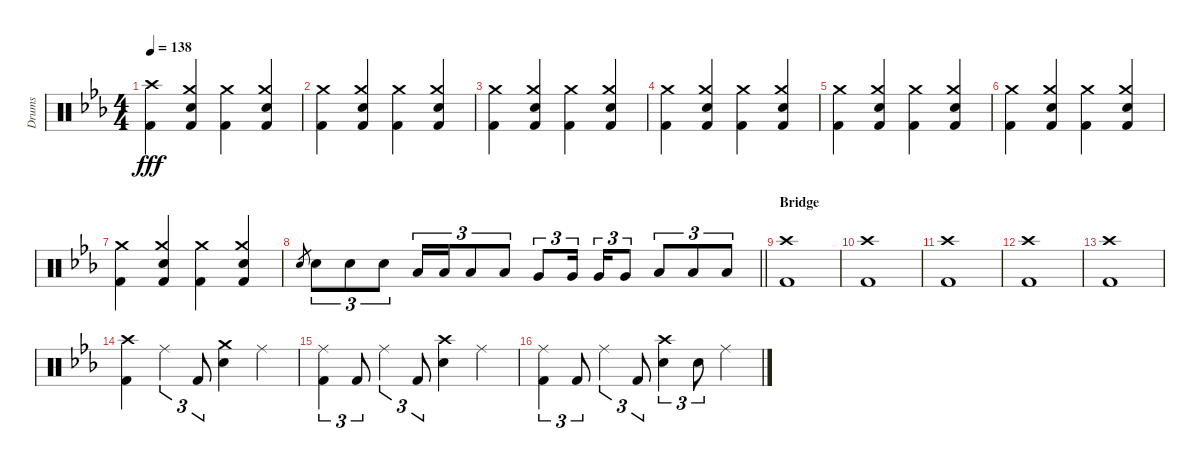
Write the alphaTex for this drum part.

\track ("Drums" "Drums") {instrument percussion}
\staff {score}
\articulation defaults
\ts (4 4)
\tempo 138
\clef neutral
\ks eb
("Crash high (hit)" "Kick (hit) 2").4{dy fff} ("Crash medium (hit)" "Snare (hit) 2" "Kick (hit) 2").4 ("Crash medium (hit)" "Kick (hit) 2").4 ("Crash medium (hit)" "Snare (hit) 2" "Kick (hit) 2").4 |
("Crash medium (hit)" "Kick (hit) 2").4 ("Crash medium (hit)" "Snare (hit) 2" "Kick (hit) 2").4 ("Crash medium (hit)" "Kick (hit) 2").4 ("Crash medium (hit)" "Snare (hit) 2" "Kick (hit) 2").4 |
("Crash medium (hit)" "Kick (hit) 2").4 ("Crash medium (hit)" "Snare (hit) 2" "Kick (hit) 2").4 ("Crash medium (hit)" "Kick (hit) 2").4 ("Crash medium (hit)" "Snare (hit) 2" "Kick (hit) 2").4 |
("Crash medium (hit)" "Kick (hit) 2").4 ("Crash medium (hit)" "Snare (hit) 2" "Kick (hit) 2").4 ("Crash medium (hit)" "Kick (hit) 2").4 ("Crash medium (hit)" "Snare (hit) 2" "Kick (hit) 2").4 |
("Crash medium (hit)" "Kick (hit) 2").4 ("Crash medium (hit)" "Snare (hit) 2" "Kick (hit) 2").4 ("Crash medium (hit)" "Kick (hit) 2").4 ("Crash medium (hit)" "Snare (hit) 2" "Kick (hit) 2").4 |
("Crash medium (hit)" "Kick (hit) 2").4 ("Crash medium (hit)" "Snare (hit) 2" "Kick (hit) 2").4 ("Crash medium (hit)" "Kick (hit) 2").4 ("Crash medium (hit)" "Snare (hit) 2" "Kick (hit) 2").4 |
("Crash medium (hit)" "Kick (hit) 2").4 ("Crash medium (hit)" "Snare (hit) 2" "Kick (hit) 2").4 ("Crash medium (hit)" "Kick (hit) 2").4 ("Crash medium (hit)" "Snare (hit) 2" "Kick (hit) 2").4 |
\barLineRight lightlight "Snare (hit) 2".8{gr} "Snare (hit) 2".8{tu (3 2)} "Snare (hit) 2".8{tu (3 2)} "Snare (hit) 2".8{tu (3 2)} "Low Tom (hit)".16{tu (3 2)} "Low Tom (hit)".16{tu (3 2)} "Low Tom (hit)".8{tu (3 2)} "Low Tom (hit)".8{tu (3 2)} "Very Low Tom (hit)".8{tu (3 2)} "Very Low Tom (hit)".16{tu (3 2)} "Very Low Tom (hit)".16{tu (3 2)} "Very Low Tom (hit)".8{tu (3 2)} "Low Floor Tom (hit)".8{tu (3 2)} "Low Floor Tom (hit)".8{tu (3 2)} "Low Floor Tom (hit)".8{tu (3 2)}
|
\section ("" "Bridge")
("Crash high (hit)" "Kick (hit) 2").1 |
("Crash high (hit)" "Kick (hit) 2").1 |
("Crash high (hit)" "Kick (hit) 2").1 |
("Crash high (hit)" "Kick (hit) 2").1 |
("Crash high (hit)" "Kick (hit) 2").1 |
("Crash high (hit)" "Kick (hit) 2").4 "Ride (middle)".4{tu (3 2)} "Kick (hit) 2".8{tu (3 2)} ("Crash medium (hit)" "Snare (hit) 2").4 "Ride (middle)".4 |
("Ride (middle)" "Kick (hit) 2").4{tu (3 2)} "Kick (hit) 2".8{tu (3 2)} "Ride (middle)".4{tu (3 2)} "Kick (hit) 2".8{tu (3 2)} ("Crash high (hit)" "Snare (hit) 2").4 "Ride (middle)".4 |
("Ride (middle)" "Kick (hit) 2").4{tu (3 2)} "Kick (hit) 2".8{tu (3 2)} "Ride (middle)".4{tu (3 2)} "Kick (hit) 2".8{tu (3 2)} ("Crash high (hit)" "Snare (hit) 2").4{tu (3 2)} "Snare (hit) 2".8{tu (3 2)} "Ride (middle)".4
